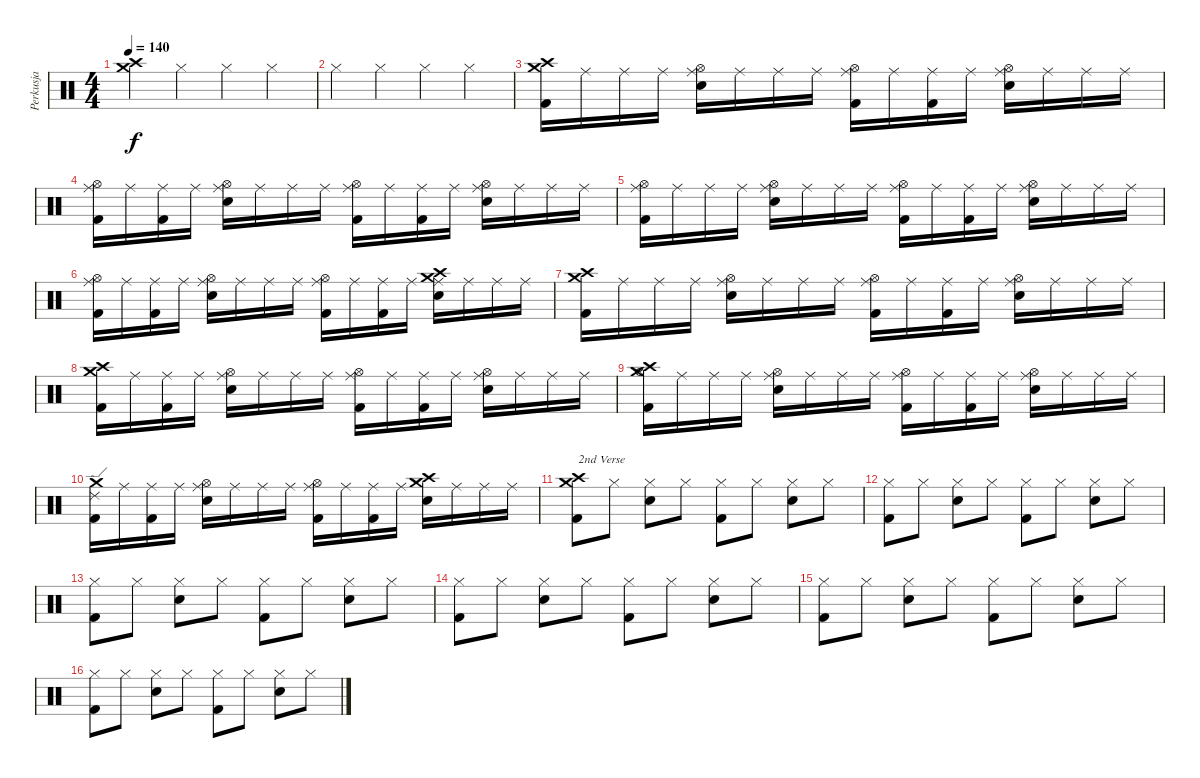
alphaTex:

\track ("Perkusja" "Perkusja") {instrument percussion}
\staff {score}
\articulation defaults
\ts (4 4)
\tempo 140
\clef neutral
\ks c
("Crash medium (hit)" "Crash high (hit)").4{dy f} "Hi-Hat (closed)".4 "Hi-Hat (closed)".4 "Hi-Hat (closed)".4 |
"Hi-Hat (closed)".4 "Hi-Hat (closed)".4 "Hi-Hat (closed)".4 "Hi-Hat (closed)".4 |
("Crash medium (hit)" "Crash high (hit)" "Kick (hit) 2").16 "Ride (middle)".16 "Ride (middle)".16 "Ride (middle)".16 ("Ride (middle)" "Hi-Hat (open)" "Snare (hit) 2").16 "Ride (middle)".16 "Ride (middle)".16 "Ride (middle)".16 ("Ride (middle)" "Hi-Hat (open)" "Kick (hit) 2").16 "Ride (middle)".16 ("Ride (middle)" "Kick (hit) 2").16 "Ride (middle)".16 ("Ride (middle)" "Hi-Hat (open)" "Snare (hit) 2").16 "Ride (middle)".16 "Ride (middle)".16 "Ride (middle)".16 |
("Ride (middle)" "Hi-Hat (open)" "Kick (hit) 2").16 "Ride (middle)".16 ("Ride (middle)" "Kick (hit) 2").16 "Ride (middle)".16 ("Ride (middle)" "Hi-Hat (open)" "Snare (hit) 2").16 "Ride (middle)".16 "Ride (middle)".16 "Ride (middle)".16 ("Ride (middle)" "Hi-Hat (open)" "Kick (hit) 2").16 "Ride (middle)".16 ("Ride (middle)" "Kick (hit) 2").16 "Ride (middle)".16 ("Ride (middle)" "Hi-Hat (open)" "Snare (hit) 2").16 "Ride (middle)".16 "Ride (middle)".16 "Ride (middle)".16 |
("Ride (middle)" "Hi-Hat (open)" "Kick (hit) 2").16 "Ride (middle)".16 "Ride (middle)".16 "Ride (middle)".16 ("Ride (middle)" "Hi-Hat (open)" "Snare (hit) 2").16 "Ride (middle)".16 "Ride (middle)".16 "Ride (middle)".16 ("Ride (middle)" "Hi-Hat (open)" "Kick (hit) 2").16 "Ride (middle)".16 ("Ride (middle)" "Kick (hit) 2").16 "Ride (middle)".16 ("Ride (middle)" "Hi-Hat (open)" "Snare (hit) 2").16 "Ride (middle)".16 "Ride (middle)".16 "Ride (middle)".16 |
("Ride (middle)" "Hi-Hat (open)" "Kick (hit) 2").16 "Ride (middle)".16 ("Ride (middle)" "Kick (hit) 2").16 "Ride (middle)".16 ("Ride (middle)" "Hi-Hat (open)" "Snare (hit) 2").16 "Ride (middle)".16 "Ride (middle)".16 "Ride (middle)".16 ("Ride (middle)" "Hi-Hat (open)" "Kick (hit) 2").16 "Ride (middle)".16 ("Ride (middle)" "Kick (hit) 2").16 "Ride (middle)".16 ("Crash medium (hit)" "Crash high (hit)" "Ride (middle)" "Snare (hit) 2").16 "Ride (middle)".16 "Ride (middle)".16 "Ride (middle)".16 |
("Crash medium (hit)" "Crash high (hit)" "Kick (hit) 2").16 "Ride (middle)".16 "Ride (middle)".16 "Ride (middle)".16 ("Ride (middle)" "Hi-Hat (open)" "Snare (hit) 2").16 "Ride (middle)".16 "Ride (middle)".16 "Ride (middle)".16 ("Ride (middle)" "Hi-Hat (open)" "Kick (hit) 2").16 "Ride (middle)".16 ("Ride (middle)" "Kick (hit) 2").16 "Ride (middle)".16 ("Ride (middle)" "Hi-Hat (open)" "Snare (hit) 2").16 "Ride (middle)".16 "Ride (middle)".16 "Ride (middle)".16 |
("Crash medium (hit)" "Crash high (hit)" "Kick (hit) 2").16 "Ride (middle)".16 ("Ride (middle)" "Kick (hit) 2").16 "Ride (middle)".16 ("Ride (middle)" "Hi-Hat (open)" "Snare (hit) 2").16 "Ride (middle)".16 "Ride (middle)".16 "Ride (middle)".16 ("Ride (middle)" "Hi-Hat (open)" "Kick (hit) 2").16 "Ride (middle)".16 ("Ride (middle)" "Kick (hit) 2").16 "Ride (middle)".16 ("Ride (middle)" "Hi-Hat (open)" "Snare (hit) 2").16 "Ride (middle)".16 "Ride (middle)".16 "Ride (middle)".16 |
("Crash medium (hit)" "Crash high (hit)" "Hi-Hat (open)" "Kick (hit) 2").16 "Ride (middle)".16 "Ride (middle)".16 "Ride (middle)".16 ("Ride (middle)" "Hi-Hat (open)" "Snare (hit) 2").16 "Ride (middle)".16 "Ride (middle)".16 "Ride (middle)".16 ("Ride (middle)" "Hi-Hat (open)" "Kick (hit) 2").16 "Ride (middle)".16 ("Ride (middle)" "Kick (hit) 2").16 "Ride (middle)".16 ("Ride (middle)" "Hi-Hat (open)" "Snare (hit) 2").16 "Ride (middle)".16 "Ride (middle)".16 "Ride (middle)".16 |
("Crash medium (hit)" "Ride (edge) 2" "Kick (hit) 2").16 "Ride (middle)".16 ("Ride (middle)" "Kick (hit) 2").16 "Ride (middle)".16 ("Ride (middle)" "Hi-Hat (open)" "Snare (hit) 2").16 "Ride (middle)".16 "Ride (middle)".16 "Ride (middle)".16 ("Ride (middle)" "Hi-Hat (open)" "Kick (hit) 2").16 "Ride (middle)".16 ("Ride (middle)" "Kick (hit) 2").16 "Ride (middle)".16 ("Crash high (hit)" "Crash medium (hit)" "Snare (hit) 2").16 "Ride (middle)".16 "Ride (middle)".16 "Ride (middle)".16 |
("Crash medium (hit)" "Crash high (hit)" "Kick (hit) 2").8{txt "2nd Verse"} "Hi-Hat (closed)".8 ("Hi-Hat (closed)" "Snare (hit) 2").8 "Hi-Hat (closed)".8 ("Hi-Hat (closed)" "Kick (hit) 2").8 "Hi-Hat (closed)".8 ("Hi-Hat (closed)" "Snare (hit) 2").8 "Hi-Hat (closed)".8 |
("Hi-Hat (closed)" "Kick (hit) 2").8 "Hi-Hat (closed)".8 ("Hi-Hat (closed)" "Snare (hit) 2").8 "Hi-Hat (closed)".8 ("Hi-Hat (closed)" "Kick (hit) 2").8 "Hi-Hat (closed)".8 ("Hi-Hat (closed)" "Snare (hit) 2").8 "Hi-Hat (closed)".8 |
("Hi-Hat (closed)" "Kick (hit) 2").8 "Hi-Hat (closed)".8 ("Hi-Hat (closed)" "Snare (hit) 2").8 "Hi-Hat (closed)".8 ("Hi-Hat (closed)" "Kick (hit) 2").8 "Hi-Hat (closed)".8 ("Hi-Hat (closed)" "Snare (hit) 2").8 "Hi-Hat (closed)".8 |
("Hi-Hat (closed)" "Kick (hit) 2").8 "Hi-Hat (closed)".8 ("Hi-Hat (closed)" "Snare (hit) 2").8 "Hi-Hat (closed)".8 ("Hi-Hat (closed)" "Kick (hit) 2").8 "Hi-Hat (closed)".8 ("Hi-Hat (closed)" "Snare (hit) 2").8 "Hi-Hat (closed)".8 |
("Hi-Hat (closed)" "Kick (hit) 2").8 "Hi-Hat (closed)".8 ("Hi-Hat (closed)" "Snare (hit) 2").8 "Hi-Hat (closed)".8 ("Hi-Hat (closed)" "Kick (hit) 2").8 "Hi-Hat (closed)".8 ("Hi-Hat (closed)" "Snare (hit) 2").8 "Hi-Hat (closed)".8 |
("Hi-Hat (closed)" "Kick (hit) 2").8 "Hi-Hat (closed)".8 ("Hi-Hat (closed)" "Snare (hit) 2").8 "Hi-Hat (closed)".8 ("Hi-Hat (closed)" "Kick (hit) 2").8 "Hi-Hat (closed)".8 ("Hi-Hat (closed)" "Snare (hit) 2").8 "Hi-Hat (closed)".8
